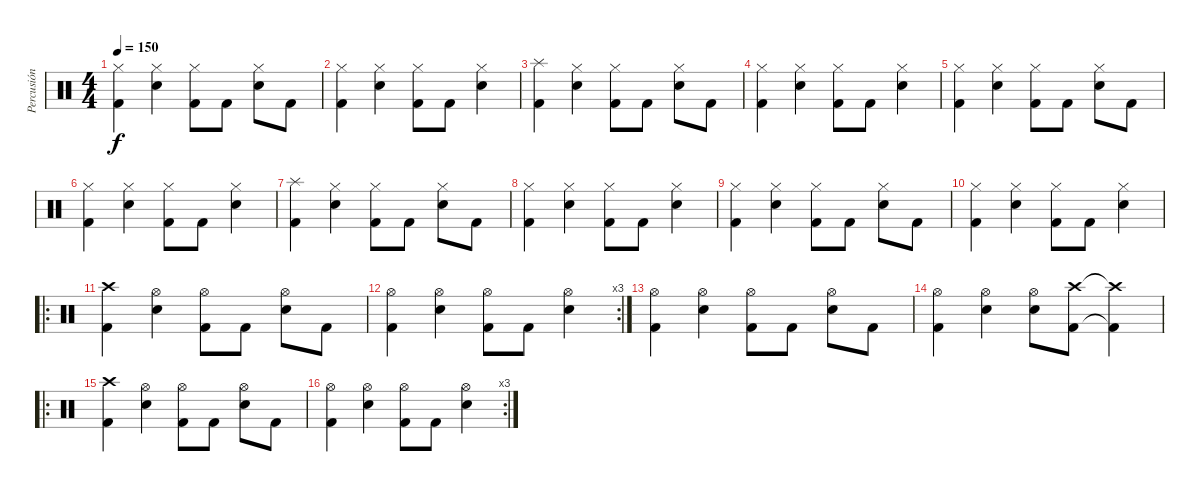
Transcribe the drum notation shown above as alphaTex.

\track ("Percusión" "Percusión") {instrument percussion}
\staff {score}
\articulation defaults
\ts (4 4)
\tempo 150
\clef neutral
\ks c
("Hi-Hat (closed)" "Kick (hit) 2").4{dy f} ("Hi-Hat (closed)" "Electric Snare (hit)").4 ("Hi-Hat (closed)" "Kick (hit) 2").8 "Kick (hit) 2".8 ("Hi-Hat (closed)" "Electric Snare (hit)").8 "Kick (hit) 2".8 |
("Hi-Hat (closed)" "Kick (hit) 2").4 ("Hi-Hat (closed)" "Electric Snare (hit)").4 ("Hi-Hat (closed)" "Kick (hit) 2").8 "Kick (hit) 2".8 ("Hi-Hat (closed)" "Electric Snare (hit)").4 |
("Splash (hit)" "Kick (hit) 2").4 ("Hi-Hat (closed)" "Electric Snare (hit)").4 ("Hi-Hat (closed)" "Kick (hit) 2").8 "Kick (hit) 2".8 ("Hi-Hat (closed)" "Electric Snare (hit)").8 "Kick (hit) 2".8 |
("Hi-Hat (closed)" "Kick (hit) 2").4 ("Hi-Hat (closed)" "Electric Snare (hit)").4 ("Hi-Hat (closed)" "Kick (hit) 2").8 "Kick (hit) 2".8 ("Hi-Hat (closed)" "Electric Snare (hit)").4 |
("Hi-Hat (closed)" "Kick (hit) 2").4 ("Hi-Hat (closed)" "Electric Snare (hit)").4 ("Hi-Hat (closed)" "Kick (hit) 2").8 "Kick (hit) 2".8 ("Hi-Hat (closed)" "Electric Snare (hit)").8 "Kick (hit) 2".8 |
("Hi-Hat (closed)" "Kick (hit) 2").4 ("Hi-Hat (closed)" "Electric Snare (hit)").4 ("Hi-Hat (closed)" "Kick (hit) 2").8 "Kick (hit) 2".8 ("Hi-Hat (closed)" "Electric Snare (hit)").4 |
("Splash (hit)" "Kick (hit) 2").4 ("Hi-Hat (closed)" "Electric Snare (hit)").4 ("Hi-Hat (closed)" "Kick (hit) 2").8 "Kick (hit) 2".8 ("Hi-Hat (closed)" "Electric Snare (hit)").8 "Kick (hit) 2".8 |
("Hi-Hat (closed)" "Kick (hit) 2").4 ("Hi-Hat (closed)" "Electric Snare (hit)").4 ("Hi-Hat (closed)" "Kick (hit) 2").8 "Kick (hit) 2".8 ("Hi-Hat (closed)" "Electric Snare (hit)").4 |
("Hi-Hat (closed)" "Kick (hit) 2").4 ("Hi-Hat (closed)" "Electric Snare (hit)").4 ("Hi-Hat (closed)" "Kick (hit) 2").8 "Kick (hit) 2".8 ("Hi-Hat (closed)" "Electric Snare (hit)").8 "Kick (hit) 2".8 |
("Hi-Hat (closed)" "Kick (hit) 2").4 ("Hi-Hat (closed)" "Electric Snare (hit)").4 ("Hi-Hat (closed)" "Kick (hit) 2").8 "Kick (hit) 2".8 ("Hi-Hat (closed)" "Electric Snare (hit)").4 |
\ro
("Crash high (hit)" "Kick (hit) 2").4 ("Hi-Hat (open)" "Electric Snare (hit)").4 ("Hi-Hat (open)" "Kick (hit) 2").8 "Kick (hit) 2".8 ("Hi-Hat (open)" "Electric Snare (hit)").8 "Kick (hit) 2".8 |
\rc 3
("Hi-Hat (open)" "Kick (hit) 2").4 ("Hi-Hat (open)" "Electric Snare (hit)").4 ("Hi-Hat (open)" "Kick (hit) 2").8 "Kick (hit) 2".8 ("Hi-Hat (open)" "Electric Snare (hit)").4 |
("Hi-Hat (open)" "Kick (hit) 2").4 ("Hi-Hat (open)" "Electric Snare (hit)").4 ("Hi-Hat (open)" "Kick (hit) 2").8 "Kick (hit) 2".8 ("Hi-Hat (open)" "Electric Snare (hit)").8 "Kick (hit) 2".8 |
("Hi-Hat (open)" "Kick (hit) 2").4 ("Hi-Hat (open)" "Electric Snare (hit)").4 ("Hi-Hat (open)" "Electric Snare (hit)").8 ("Crash high (hit)" "Kick (hit) 2").8 ("Crash high (hit)"{t} "Kick (hit) 2"{t}).4 |
\ro
("Crash high (hit)" "Kick (hit) 2").4 ("Hi-Hat (open)" "Electric Snare (hit)").4 ("Hi-Hat (open)" "Kick (hit) 2").8 "Kick (hit) 2".8 ("Hi-Hat (open)" "Electric Snare (hit)").8 "Kick (hit) 2".8 |
\rc 3
("Hi-Hat (open)" "Kick (hit) 2").4 ("Hi-Hat (open)" "Electric Snare (hit)").4 ("Hi-Hat (open)" "Kick (hit) 2").8 "Kick (hit) 2".8 ("Hi-Hat (open)" "Electric Snare (hit)").4
